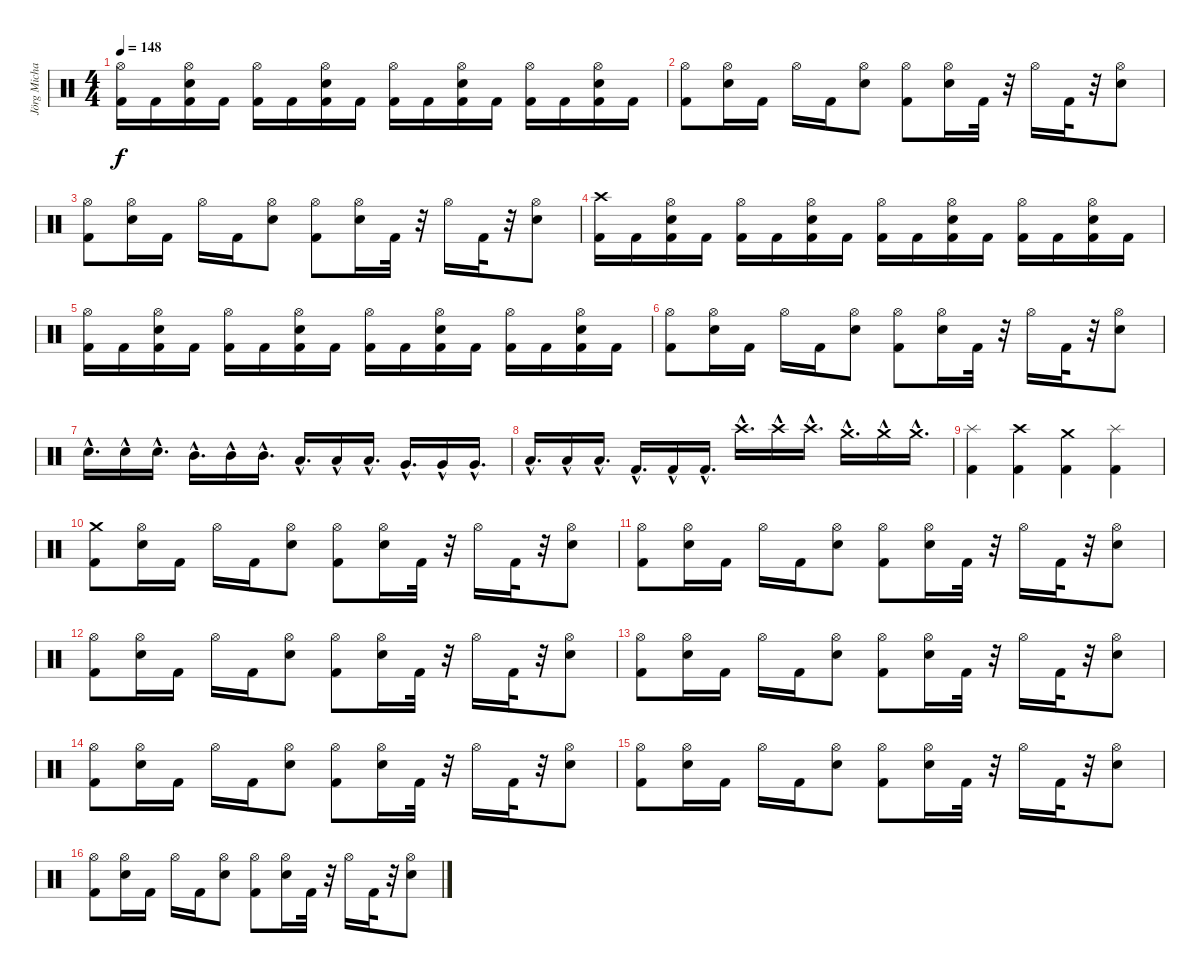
\track ("Jörg Michael" "Jörg Micha") {instrument percussion}
\staff {score}
\articulation defaults
\ts (4 4)
\tempo 148
\clef neutral
\ks c
("Kick (hit) 2" "Hi-Hat (open)").16{dy f} "Kick (hit) 2".16 ("Hi-Hat (open)" "Kick (hit) 2" "Electric Snare (hit)").16 "Kick (hit) 2".16 ("Kick (hit) 2" "Hi-Hat (open)").16 "Kick (hit) 2".16 ("Hi-Hat (open)" "Kick (hit) 2" "Electric Snare (hit)").16 "Kick (hit) 2".16 ("Kick (hit) 2" "Hi-Hat (open)").16 "Kick (hit) 2".16 ("Hi-Hat (open)" "Kick (hit) 2" "Electric Snare (hit)").16 "Kick (hit) 2".16 ("Kick (hit) 2" "Hi-Hat (open)").16 "Kick (hit) 2".16 ("Hi-Hat (open)" "Kick (hit) 2" "Electric Snare (hit)").16 "Kick (hit) 2".16 |
("Hi-Hat (open)" "Kick (hit) 2").8 ("Hi-Hat (open)" "Electric Snare (hit)").16 "Kick (hit) 2".16 "Hi-Hat (open)".16 "Kick (hit) 2".16 ("Hi-Hat (open)" "Electric Snare (hit)").8 ("Hi-Hat (open)" "Kick (hit) 2").8 ("Hi-Hat (open)" "Electric Snare (hit)").16 "Kick (hit) 2".32 r.32 "Hi-Hat (open)".16 "Kick (hit) 2".32 r.32 ("Hi-Hat (open)" "Electric Snare (hit)").8 |
("Hi-Hat (open)" "Kick (hit) 2").8 ("Hi-Hat (open)" "Electric Snare (hit)").16 "Kick (hit) 2".16 "Hi-Hat (open)".16 "Kick (hit) 2".16 ("Hi-Hat (open)" "Electric Snare (hit)").8 ("Hi-Hat (open)" "Kick (hit) 2").8 ("Hi-Hat (open)" "Electric Snare (hit)").16 "Kick (hit) 2".32 r.32 "Hi-Hat (open)".16 "Kick (hit) 2".32 r.32 ("Hi-Hat (open)" "Electric Snare (hit)").8 |
("Crash high (hit)" "Kick (hit) 2").16 "Kick (hit) 2".16 ("Hi-Hat (open)" "Electric Snare (hit)" "Kick (hit) 2").16 "Kick (hit) 2".16 ("Hi-Hat (open)" "Kick (hit) 2").16 "Kick (hit) 2".16 ("Hi-Hat (open)" "Electric Snare (hit)" "Kick (hit) 2").16 "Kick (hit) 2".16 ("Hi-Hat (open)" "Kick (hit) 2").16 "Kick (hit) 2".16 ("Hi-Hat (open)" "Electric Snare (hit)" "Kick (hit) 2").16 "Kick (hit) 2".16 ("Hi-Hat (open)" "Kick (hit) 2").16 "Kick (hit) 2".16 ("Hi-Hat (open)" "Electric Snare (hit)" "Kick (hit) 2").16 "Kick (hit) 2".16 |
("Kick (hit) 2" "Hi-Hat (open)").16 "Kick (hit) 2".16 ("Hi-Hat (open)" "Kick (hit) 2" "Electric Snare (hit)").16 "Kick (hit) 2".16 ("Kick (hit) 2" "Hi-Hat (open)").16 "Kick (hit) 2".16 ("Hi-Hat (open)" "Kick (hit) 2" "Electric Snare (hit)").16 "Kick (hit) 2".16 ("Kick (hit) 2" "Hi-Hat (open)").16 "Kick (hit) 2".16 ("Hi-Hat (open)" "Kick (hit) 2" "Electric Snare (hit)").16 "Kick (hit) 2".16 ("Kick (hit) 2" "Hi-Hat (open)").16 "Kick (hit) 2".16 ("Hi-Hat (open)" "Kick (hit) 2" "Electric Snare (hit)").16 "Kick (hit) 2".16 |
("Hi-Hat (open)" "Kick (hit) 2").8 ("Hi-Hat (open)" "Electric Snare (hit)").16 "Kick (hit) 2".16 "Hi-Hat (open)".16 "Kick (hit) 2".16 ("Hi-Hat (open)" "Electric Snare (hit)").8 ("Hi-Hat (open)" "Kick (hit) 2").8 ("Hi-Hat (open)" "Electric Snare (hit)").16 "Kick (hit) 2".32 r.32 "Hi-Hat (open)".16 "Kick (hit) 2".32 r.32 ("Hi-Hat (open)" "Electric Snare (hit)").8 |
"Electric Snare (hit)"{hac}.16{d} "Electric Snare (hit)"{hac}.16 "Electric Snare (hit)"{hac}.16{d} "Mid Tom (hit)"{hac}.16{d} "Mid Tom (hit)"{hac}.16 "Mid Tom (hit)"{hac}.16{d} "Low Tom (hit)"{hac}.16{d} "Low Tom (hit)"{hac}.16 "Low Tom (hit)"{hac}.16{d} "Very Low Tom (hit)"{hac}.16{d} "Very Low Tom (hit)"{hac}.16 "Very Low Tom (hit)"{hac}.16{d} |
"Low Floor Tom (hit)"{hac}.16{d} "Low Floor Tom (hit)"{hac}.16 "Low Floor Tom (hit)"{hac}.16{d} "Kick (hit) 2"{hac}.16{d} "Kick (hit) 2"{hac}.16 "Kick (hit) 2"{hac}.16{d} "Crash high (hit)"{hac}.16{d} "Crash high (hit)"{hac}.16 "Crash high (hit)"{hac}.16{d} "Crash medium (hit)"{hac}.16{d} "Crash medium (hit)"{hac}.16 "Crash medium (hit)"{hac}.16{d} |
("Splash (hit)" "Kick (hit) 2").4 ("Crash high (hit)" "Kick (hit) 2").4 ("Crash medium (hit)" "Kick (hit) 2").4 ("Splash (hit)" "Kick (hit) 2").4 |
("Crash medium (hit)" "Kick (hit) 2").8 ("Hi-Hat (open)" "Electric Snare (hit)").16 "Kick (hit) 2".16 "Hi-Hat (open)".16 "Kick (hit) 2".16 ("Hi-Hat (open)" "Electric Snare (hit)").8 ("Hi-Hat (open)" "Kick (hit) 2").8 ("Hi-Hat (open)" "Electric Snare (hit)").16 "Kick (hit) 2".32 r.32 "Hi-Hat (open)".16 "Kick (hit) 2".32 r.32 ("Hi-Hat (open)" "Electric Snare (hit)").8 |
("Hi-Hat (open)" "Kick (hit) 2").8 ("Hi-Hat (open)" "Electric Snare (hit)").16 "Kick (hit) 2".16 "Hi-Hat (open)".16 "Kick (hit) 2".16 ("Hi-Hat (open)" "Electric Snare (hit)").8 ("Hi-Hat (open)" "Kick (hit) 2").8 ("Hi-Hat (open)" "Electric Snare (hit)").16 "Kick (hit) 2".32 r.32 "Hi-Hat (open)".16 "Kick (hit) 2".32 r.32 ("Hi-Hat (open)" "Electric Snare (hit)").8 |
("Hi-Hat (open)" "Kick (hit) 2").8 ("Hi-Hat (open)" "Electric Snare (hit)").16 "Kick (hit) 2".16 "Hi-Hat (open)".16 "Kick (hit) 2".16 ("Hi-Hat (open)" "Electric Snare (hit)").8 ("Hi-Hat (open)" "Kick (hit) 2").8 ("Hi-Hat (open)" "Electric Snare (hit)").16 "Kick (hit) 2".32 r.32 "Hi-Hat (open)".16 "Kick (hit) 2".32 r.32 ("Hi-Hat (open)" "Electric Snare (hit)").8 |
("Hi-Hat (open)" "Kick (hit) 2").8 ("Hi-Hat (open)" "Electric Snare (hit)").16 "Kick (hit) 2".16 "Hi-Hat (open)".16 "Kick (hit) 2".16 ("Hi-Hat (open)" "Electric Snare (hit)").8 ("Hi-Hat (open)" "Kick (hit) 2").8 ("Hi-Hat (open)" "Electric Snare (hit)").16 "Kick (hit) 2".32 r.32 "Hi-Hat (open)".16 "Kick (hit) 2".32 r.32 ("Hi-Hat (open)" "Electric Snare (hit)").8 |
("Hi-Hat (open)" "Kick (hit) 2").8 ("Hi-Hat (open)" "Electric Snare (hit)").16 "Kick (hit) 2".16 "Hi-Hat (open)".16 "Kick (hit) 2".16 ("Hi-Hat (open)" "Electric Snare (hit)").8 ("Hi-Hat (open)" "Kick (hit) 2").8 ("Hi-Hat (open)" "Electric Snare (hit)").16 "Kick (hit) 2".32 r.32 "Hi-Hat (open)".16 "Kick (hit) 2".32 r.32 ("Hi-Hat (open)" "Electric Snare (hit)").8 |
("Hi-Hat (open)" "Kick (hit) 2").8 ("Hi-Hat (open)" "Electric Snare (hit)").16 "Kick (hit) 2".16 "Hi-Hat (open)".16 "Kick (hit) 2".16 ("Hi-Hat (open)" "Electric Snare (hit)").8 ("Hi-Hat (open)" "Kick (hit) 2").8 ("Hi-Hat (open)" "Electric Snare (hit)").16 "Kick (hit) 2".32 r.32 "Hi-Hat (open)".16 "Kick (hit) 2".32 r.32 ("Hi-Hat (open)" "Electric Snare (hit)").8 |
("Hi-Hat (open)" "Kick (hit) 2").8 ("Hi-Hat (open)" "Electric Snare (hit)").16 "Kick (hit) 2".16 "Hi-Hat (open)".16 "Kick (hit) 2".16 ("Hi-Hat (open)" "Electric Snare (hit)").8 ("Hi-Hat (open)" "Kick (hit) 2").8 ("Hi-Hat (open)" "Electric Snare (hit)").16 "Kick (hit) 2".32 r.32 "Hi-Hat (open)".16 "Kick (hit) 2".32 r.32 ("Hi-Hat (open)" "Electric Snare (hit)").8
